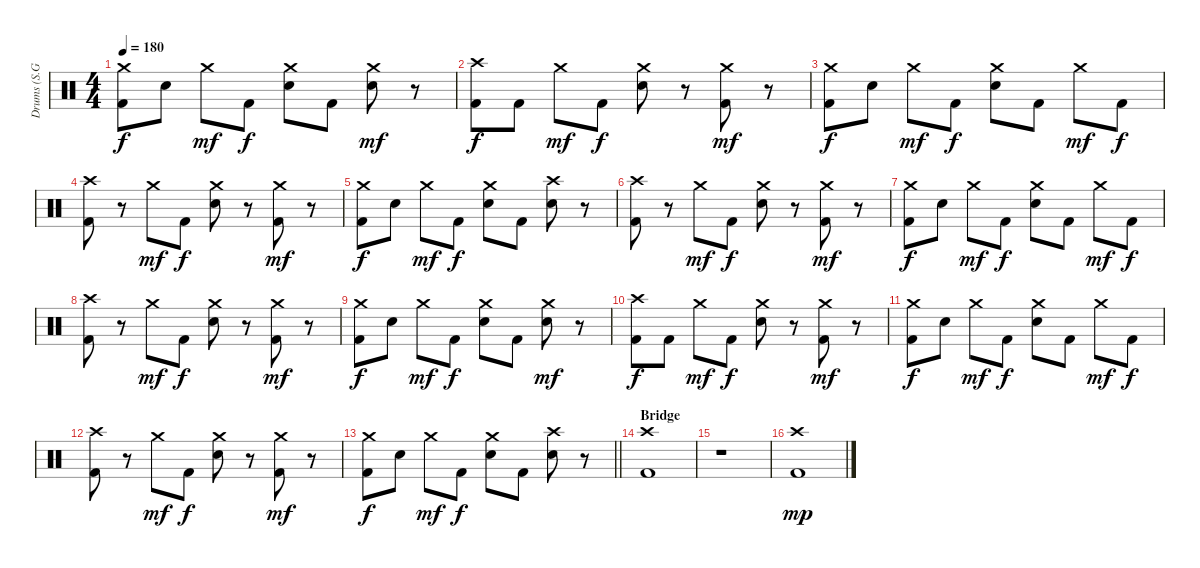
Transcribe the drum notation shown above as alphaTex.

\track ("Drums (S.G. Yim)" "Drums (S.G") {instrument percussion}
\staff {score}
\articulation defaults
\ts (4 4)
\tempo 180
\clef neutral
\ks c
("Crash medium (hit)" "Kick (hit) 2").8{dy f} "Snare (hit) 2".8 "Crash medium (hit)".8{dy mf} "Kick (hit) 2".8{dy f} ("Crash medium (hit)" "Snare (hit) 2").8 "Kick (hit) 2".8 ("Crash medium (hit)" "Snare (hit) 2").8{dy mf} r.8 |
("Crash high (hit)" "Kick (hit) 2").8{dy f} "Kick (hit) 2".8 "Crash medium (hit)".8{dy mf} "Kick (hit) 2".8{dy f} ("Crash medium (hit)" "Snare (hit) 2").8 r.8 ("Crash medium (hit)" "Kick (hit) 2").8{dy mf} r.8 |
("Crash medium (hit)" "Kick (hit) 2").8{dy f} "Snare (hit) 2".8 "Crash medium (hit)".8{dy mf} "Kick (hit) 2".8{dy f} ("Crash medium (hit)" "Snare (hit) 2").8 "Kick (hit) 2".8 "Crash medium (hit)".8{dy mf} "Kick (hit) 2".8{dy f} |
("Crash high (hit)" "Kick (hit) 2").8 r.8 "Crash medium (hit)".8{dy mf} "Kick (hit) 2".8{dy f} ("Crash medium (hit)" "Snare (hit) 2").8 r.8 ("Crash medium (hit)" "Kick (hit) 2").8{dy mf} r.8 |
("Crash medium (hit)" "Kick (hit) 2").8{dy f} "Snare (hit) 2".8 "Crash medium (hit)".8{dy mf} "Kick (hit) 2".8{dy f} ("Crash medium (hit)" "Snare (hit) 2").8 "Kick (hit) 2".8 ("Crash high (hit)" "Snare (hit) 2").8 r.8 |
("Crash high (hit)" "Kick (hit) 2").8 r.8 "Crash medium (hit)".8{dy mf} "Kick (hit) 2".8{dy f} ("Crash medium (hit)" "Snare (hit) 2").8 r.8 ("Crash medium (hit)" "Kick (hit) 2").8{dy mf} r.8 |
("Crash medium (hit)" "Kick (hit) 2").8{dy f} "Snare (hit) 2".8 "Crash medium (hit)".8{dy mf} "Kick (hit) 2".8{dy f} ("Crash medium (hit)" "Snare (hit) 2").8 "Kick (hit) 2".8 "Crash medium (hit)".8{dy mf} "Kick (hit) 2".8{dy f} |
("Crash high (hit)" "Kick (hit) 2").8 r.8 "Crash medium (hit)".8{dy mf} "Kick (hit) 2".8{dy f} ("Crash medium (hit)" "Snare (hit) 2").8 r.8 ("Crash medium (hit)" "Kick (hit) 2").8{dy mf} r.8 |
("Crash medium (hit)" "Kick (hit) 2").8{dy f} "Snare (hit) 2".8 "Crash medium (hit)".8{dy mf} "Kick (hit) 2".8{dy f} ("Crash medium (hit)" "Snare (hit) 2").8 "Kick (hit) 2".8 ("Crash medium (hit)" "Snare (hit) 2").8{dy mf} r.8 |
("Crash high (hit)" "Kick (hit) 2").8{dy f} "Kick (hit) 2".8 "Crash medium (hit)".8{dy mf} "Kick (hit) 2".8{dy f} ("Crash medium (hit)" "Snare (hit) 2").8 r.8 ("Crash medium (hit)" "Kick (hit) 2").8{dy mf} r.8 |
("Crash medium (hit)" "Kick (hit) 2").8{dy f} "Snare (hit) 2".8 "Crash medium (hit)".8{dy mf} "Kick (hit) 2".8{dy f} ("Crash medium (hit)" "Snare (hit) 2").8 "Kick (hit) 2".8 "Crash medium (hit)".8{dy mf} "Kick (hit) 2".8{dy f} |
("Crash high (hit)" "Kick (hit) 2").8 r.8 "Crash medium (hit)".8{dy mf} "Kick (hit) 2".8{dy f} ("Crash medium (hit)" "Snare (hit) 2").8 r.8 ("Crash medium (hit)" "Kick (hit) 2").8{dy mf} r.8 |
\barLineRight lightlight
("Crash medium (hit)" "Kick (hit) 2").8{dy f} "Snare (hit) 2".8 "Crash medium (hit)".8{dy mf} "Kick (hit) 2".8{dy f} ("Crash medium (hit)" "Snare (hit) 2").8 "Kick (hit) 2".8 ("Crash high (hit)" "Snare (hit) 2").8 r.8 |
\section ("" "Bridge")
("Crash high (hit)" "Kick (hit) 2").1 |
r.1 |
("Crash high (hit)" "Kick (hit) 2").1{dy mp}
